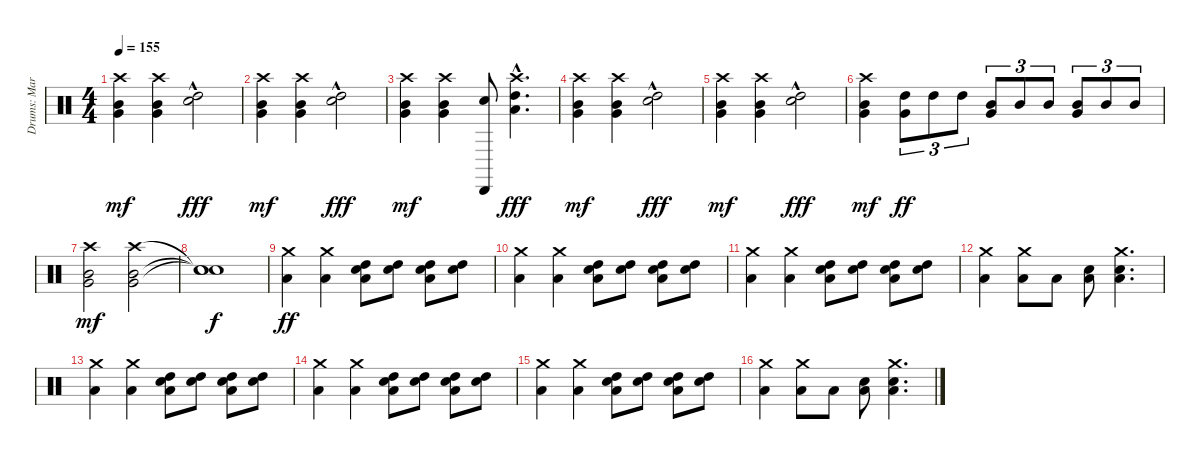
\track ("Drums: Mark Cross" "Drums: Mar") {instrument percussion}
\staff {score}
\articulation defaults
\ts (4 4)
\tempo 155
\clef neutral
\ks c
("Crash high (hit)" "Mid Tom (hit)" "Very Low Tom (hit)").4{dy mf} ("Crash high (hit)" "Mid Tom (hit)" "Very Low Tom (hit)").4 ("High Tom (hit)" "Snare (hit) 2"{hac}).2{dy fff} |
("Crash high (hit)" "Mid Tom (hit)" "Very Low Tom (hit)").4{dy mf} ("Crash high (hit)" "Mid Tom (hit)" "Very Low Tom (hit)").4 ("High Tom (hit)" "Snare (hit) 2"{hac}).2{dy fff} |
("Crash high (hit)" "Mid Tom (hit)" "Very Low Tom (hit)").4{dy mf} ("Crash high (hit)" "Mid Tom (hit)" "Very Low Tom (hit)").4 ("Cabasa (hit)" "Snare (hit) 2").8 ("High Tom (hit)" "Crash high (hit)"{hac} "Low Tom (hit)").4{d dy fff} |
("Crash high (hit)" "Mid Tom (hit)" "Very Low Tom (hit)").4{dy mf} ("Crash high (hit)" "Mid Tom (hit)" "Very Low Tom (hit)").4 ("High Tom (hit)" "Snare (hit) 2"{hac}).2{dy fff} |
("Crash high (hit)" "Mid Tom (hit)" "Very Low Tom (hit)").4{dy mf} ("Crash high (hit)" "Mid Tom (hit)" "Very Low Tom (hit)").4 ("High Tom (hit)" "Snare (hit) 2"{hac}).2{dy fff} |
("Crash high (hit)" "Mid Tom (hit)" "Very Low Tom (hit)").4{dy mf} ("High Tom (hit)" "Very Low Tom (hit)").8{tu (3 2) dy ff} "High Tom (hit)".8{tu (3 2)} "High Tom (hit)".8{tu (3 2)} ("Mid Tom (hit)" "Very Low Tom (hit)").8{tu (3 2)} "Mid Tom (hit)".8{tu (3 2)} "Mid Tom (hit)".8{tu (3 2)} ("Mid Tom (hit)" "Very Low Tom (hit)").8{tu (3 2)} "Mid Tom (hit)".8{tu (3 2)} "Mid Tom (hit)".8{tu (3 2)} |
("Crash high (hit)" "Mid Tom (hit)" "Very Low Tom (hit)").2{dy mf} ("Crash high (hit)" "Mid Tom (hit)" "Very Low Tom (hit)").2 |
("Snare (hit)"{t} "Snare (hit)"{t} "Snare (hit)"{t}).1{dy f} |
("Crash medium (hit)" "Low Tom (hit)").4{dy ff} ("Crash medium (hit)" "Low Tom (hit)").4 ("Snare (hit) 2" "High Tom (hit)" "Low Tom (hit)").8 ("Snare (hit) 2" "High Tom (hit)").8 ("Snare (hit) 2" "High Tom (hit)" "Low Tom (hit)").8 ("Snare (hit) 2" "High Tom (hit)").8 |
("Crash medium (hit)" "Low Tom (hit)").4 ("Crash medium (hit)" "Low Tom (hit)").4 ("Snare (hit) 2" "High Tom (hit)" "Low Tom (hit)").8 ("Snare (hit) 2" "High Tom (hit)").8 ("Snare (hit) 2" "High Tom (hit)" "Low Tom (hit)").8 ("Snare (hit) 2" "High Tom (hit)").8 |
("Crash medium (hit)" "Low Tom (hit)").4 ("Crash medium (hit)" "Low Tom (hit)").4 ("Snare (hit) 2" "High Tom (hit)" "Low Tom (hit)").8 ("Snare (hit) 2" "High Tom (hit)").8 ("Snare (hit) 2" "High Tom (hit)" "Low Tom (hit)").8 ("Snare (hit) 2" "High Tom (hit)").8 |
("Crash medium (hit)" "Low Tom (hit)").4 ("Crash medium (hit)" "Low Tom (hit)").8 "Low Tom (hit)".8 ("Snare (hit) 2" "Low Tom (hit)").8 ("Crash medium (hit)" "Snare (hit) 2" "Low Tom (hit)").4{d} |
("Crash medium (hit)" "Low Tom (hit)").4 ("Crash medium (hit)" "Low Tom (hit)").4 ("Snare (hit) 2" "High Tom (hit)" "Low Tom (hit)").8 ("Snare (hit) 2" "High Tom (hit)").8 ("Snare (hit) 2" "High Tom (hit)" "Low Tom (hit)").8 ("Snare (hit) 2" "High Tom (hit)").8 |
("Crash medium (hit)" "Low Tom (hit)").4 ("Crash medium (hit)" "Low Tom (hit)").4 ("Snare (hit) 2" "High Tom (hit)" "Low Tom (hit)").8 ("Snare (hit) 2" "High Tom (hit)").8 ("Snare (hit) 2" "High Tom (hit)" "Low Tom (hit)").8 ("Snare (hit) 2" "High Tom (hit)").8 |
("Crash medium (hit)" "Low Tom (hit)").4 ("Crash medium (hit)" "Low Tom (hit)").4 ("Snare (hit) 2" "High Tom (hit)" "Low Tom (hit)").8 ("Snare (hit) 2" "High Tom (hit)").8 ("Snare (hit) 2" "High Tom (hit)" "Low Tom (hit)").8 ("Snare (hit) 2" "High Tom (hit)").8 |
("Crash medium (hit)" "Low Tom (hit)").4 ("Crash medium (hit)" "Low Tom (hit)").8 "Low Tom (hit)".8 ("Snare (hit) 2" "Low Tom (hit)").8 ("Crash medium (hit)" "Snare (hit) 2" "Low Tom (hit)").4{d}
